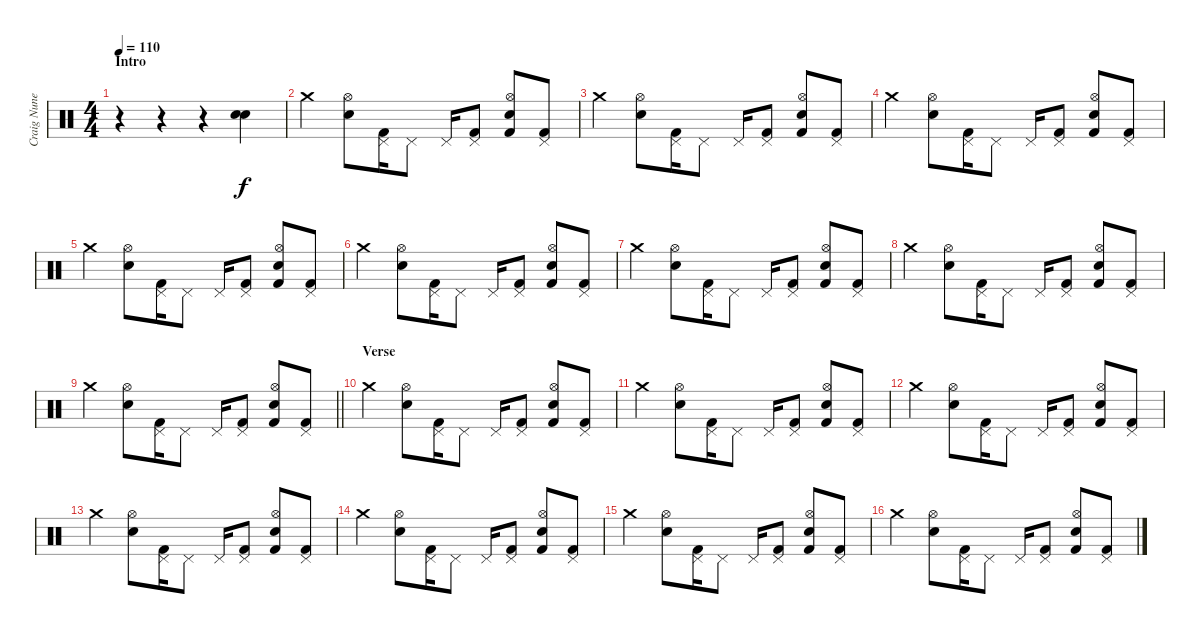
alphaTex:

\track ("Craig Nunenmacher" "Craig Nune") {instrument percussion}
\staff {score}
\articulation defaults
\ts (4 4)
\section ("" "Intro")
\tempo 110
\clef neutral
\ks c
r.4{dy f} r.4 r.4 ("Snare (hit) 2" "Electric Snare (hit)").4 |
"Crash medium (hit)".4 ("Hi-Hat (open)" "Snare (hit) 2").8 ("Pedal Hi-Hat (hit)" "Kick (hit) 2").16 "Pedal Hi-Hat (hit)".8 "Pedal Hi-Hat (hit)".16 ("Pedal Hi-Hat (hit)" "Kick (hit) 2").8 ("Hi-Hat (open)" "Snare (hit) 2" "Kick (hit) 2").8 ("Pedal Hi-Hat (hit)" "Kick (hit) 2").8 |
"Crash medium (hit)".4 ("Hi-Hat (open)" "Snare (hit) 2").8 ("Pedal Hi-Hat (hit)" "Kick (hit) 2").16 "Pedal Hi-Hat (hit)".8 "Pedal Hi-Hat (hit)".16 ("Pedal Hi-Hat (hit)" "Kick (hit) 2").8 ("Hi-Hat (open)" "Snare (hit) 2" "Kick (hit) 2").8 ("Pedal Hi-Hat (hit)" "Kick (hit) 2").8 |
"Crash medium (hit)".4 ("Hi-Hat (open)" "Snare (hit) 2").8 ("Pedal Hi-Hat (hit)" "Kick (hit) 2").16 "Pedal Hi-Hat (hit)".8 "Pedal Hi-Hat (hit)".16 ("Pedal Hi-Hat (hit)" "Kick (hit) 2").8 ("Hi-Hat (open)" "Snare (hit) 2" "Kick (hit) 2").8 ("Pedal Hi-Hat (hit)" "Kick (hit) 2").8 |
"Crash medium (hit)".4 ("Hi-Hat (open)" "Snare (hit) 2").8 ("Pedal Hi-Hat (hit)" "Kick (hit) 2").16 "Pedal Hi-Hat (hit)".8 "Pedal Hi-Hat (hit)".16 ("Pedal Hi-Hat (hit)" "Kick (hit) 2").8 ("Hi-Hat (open)" "Snare (hit) 2" "Kick (hit) 2").8 ("Pedal Hi-Hat (hit)" "Kick (hit) 2").8 |
"Crash medium (hit)".4 ("Hi-Hat (open)" "Snare (hit) 2").8 ("Pedal Hi-Hat (hit)" "Kick (hit) 2").16 "Pedal Hi-Hat (hit)".8 "Pedal Hi-Hat (hit)".16 ("Pedal Hi-Hat (hit)" "Kick (hit) 2").8 ("Hi-Hat (open)" "Snare (hit) 2" "Kick (hit) 2").8 ("Pedal Hi-Hat (hit)" "Kick (hit) 2").8 |
"Crash medium (hit)".4 ("Hi-Hat (open)" "Snare (hit) 2").8 ("Pedal Hi-Hat (hit)" "Kick (hit) 2").16 "Pedal Hi-Hat (hit)".8 "Pedal Hi-Hat (hit)".16 ("Pedal Hi-Hat (hit)" "Kick (hit) 2").8 ("Hi-Hat (open)" "Snare (hit) 2" "Kick (hit) 2").8 ("Pedal Hi-Hat (hit)" "Kick (hit) 2").8 |
"Crash medium (hit)".4 ("Hi-Hat (open)" "Snare (hit) 2").8 ("Pedal Hi-Hat (hit)" "Kick (hit) 2").16 "Pedal Hi-Hat (hit)".8 "Pedal Hi-Hat (hit)".16 ("Pedal Hi-Hat (hit)" "Kick (hit) 2").8 ("Hi-Hat (open)" "Snare (hit) 2" "Kick (hit) 2").8 ("Pedal Hi-Hat (hit)" "Kick (hit) 2").8 |
\barLineRight lightlight "Crash medium (hit)".4
("Hi-Hat (open)" "Snare (hit) 2").8 ("Pedal Hi-Hat (hit)" "Kick (hit) 2").16 "Pedal Hi-Hat (hit)".8 "Pedal Hi-Hat (hit)".16 ("Pedal Hi-Hat (hit)" "Kick (hit) 2").8 ("Hi-Hat (open)" "Snare (hit) 2" "Kick (hit) 2").8 ("Pedal Hi-Hat (hit)" "Kick (hit) 2").8 |
\section ("" "Verse")
"Crash medium (hit)".4 ("Hi-Hat (open)" "Snare (hit) 2").8 ("Pedal Hi-Hat (hit)" "Kick (hit) 2").16 "Pedal Hi-Hat (hit)".8 "Pedal Hi-Hat (hit)".16 ("Pedal Hi-Hat (hit)" "Kick (hit) 2").8 ("Hi-Hat (open)" "Snare (hit) 2" "Kick (hit) 2").8 ("Pedal Hi-Hat (hit)" "Kick (hit) 2").8 |
"Crash medium (hit)".4 ("Hi-Hat (open)" "Snare (hit) 2").8 ("Pedal Hi-Hat (hit)" "Kick (hit) 2").16 "Pedal Hi-Hat (hit)".8 "Pedal Hi-Hat (hit)".16 ("Pedal Hi-Hat (hit)" "Kick (hit) 2").8 ("Hi-Hat (open)" "Snare (hit) 2" "Kick (hit) 2").8 ("Pedal Hi-Hat (hit)" "Kick (hit) 2").8 |
"Crash medium (hit)".4 ("Hi-Hat (open)" "Snare (hit) 2").8 ("Pedal Hi-Hat (hit)" "Kick (hit) 2").16 "Pedal Hi-Hat (hit)".8 "Pedal Hi-Hat (hit)".16 ("Pedal Hi-Hat (hit)" "Kick (hit) 2").8 ("Hi-Hat (open)" "Snare (hit) 2" "Kick (hit) 2").8 ("Pedal Hi-Hat (hit)" "Kick (hit) 2").8 |
"Crash medium (hit)".4 ("Hi-Hat (open)" "Snare (hit) 2").8 ("Pedal Hi-Hat (hit)" "Kick (hit) 2").16 "Pedal Hi-Hat (hit)".8 "Pedal Hi-Hat (hit)".16 ("Pedal Hi-Hat (hit)" "Kick (hit) 2").8 ("Hi-Hat (open)" "Snare (hit) 2" "Kick (hit) 2").8 ("Pedal Hi-Hat (hit)" "Kick (hit) 2").8 |
"Crash medium (hit)".4 ("Hi-Hat (open)" "Snare (hit) 2").8 ("Pedal Hi-Hat (hit)" "Kick (hit) 2").16 "Pedal Hi-Hat (hit)".8 "Pedal Hi-Hat (hit)".16 ("Pedal Hi-Hat (hit)" "Kick (hit) 2").8 ("Hi-Hat (open)" "Snare (hit) 2" "Kick (hit) 2").8 ("Pedal Hi-Hat (hit)" "Kick (hit) 2").8 |
"Crash medium (hit)".4 ("Hi-Hat (open)" "Snare (hit) 2").8 ("Pedal Hi-Hat (hit)" "Kick (hit) 2").16 "Pedal Hi-Hat (hit)".8 "Pedal Hi-Hat (hit)".16 ("Pedal Hi-Hat (hit)" "Kick (hit) 2").8 ("Hi-Hat (open)" "Snare (hit) 2" "Kick (hit) 2").8 ("Pedal Hi-Hat (hit)" "Kick (hit) 2").8 |
"Crash medium (hit)".4 ("Hi-Hat (open)" "Snare (hit) 2").8 ("Pedal Hi-Hat (hit)" "Kick (hit) 2").16 "Pedal Hi-Hat (hit)".8 "Pedal Hi-Hat (hit)".16 ("Pedal Hi-Hat (hit)" "Kick (hit) 2").8 ("Hi-Hat (open)" "Snare (hit) 2" "Kick (hit) 2").8 ("Pedal Hi-Hat (hit)" "Kick (hit) 2").8
